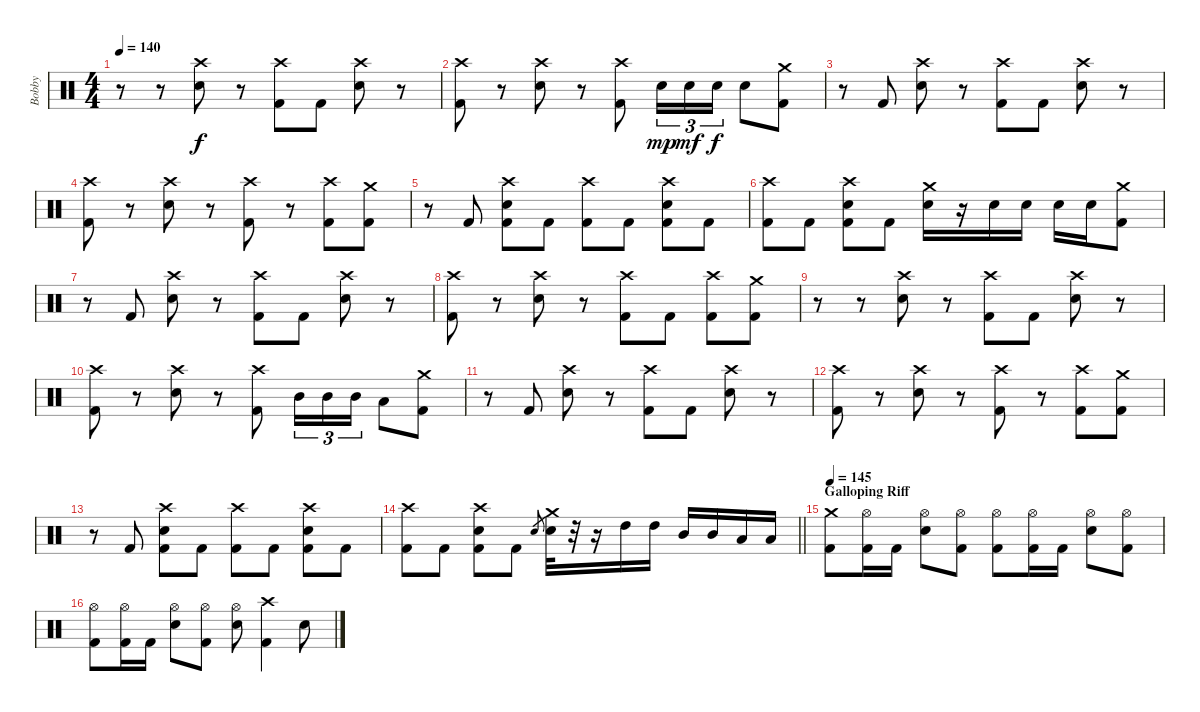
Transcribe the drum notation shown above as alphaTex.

\track ("Bobby" "Bobby") {instrument percussion}
\staff {score}
\articulation defaults
\ts (4 4)
\tempo 140
\clef neutral
\ks c
r.8{dy f} r.8 ("Crash high (hit)" "Electric Snare (hit)").8 r.8 ("Crash high (hit)" "Kick (hit) 2").8 "Kick (hit) 2".8 ("Crash high (hit)" "Electric Snare (hit)").8 r.8 |
("Crash high (hit)" "Kick (hit) 2").8 r.8 ("Crash high (hit)" "Electric Snare (hit)").8 r.8 ("Crash high (hit)" "Kick (hit) 2").8 "Electric Snare (hit)".16{tu (3 2) dy mp} "Electric Snare (hit)".16{tu (3 2) dy mf} "Electric Snare (hit)".16{tu (3 2) dy f} "Electric Snare (hit)".8 ("Crash medium (hit)" "Kick (hit) 2").8 |
r.8 "Kick (hit) 2".8 ("Crash high (hit)" "Electric Snare (hit)").8 r.8 ("Crash high (hit)" "Kick (hit) 2").8 "Kick (hit) 2".8 ("Crash high (hit)" "Electric Snare (hit)").8 r.8 |
("Crash high (hit)" "Kick (hit) 2").8 r.8 ("Crash high (hit)" "Electric Snare (hit)").8 r.8 ("Crash high (hit)" "Kick (hit) 2").8 r.8 ("Crash high (hit)" "Kick (hit) 2").8 ("Crash medium (hit)" "Kick (hit) 2").8 |
r.8 "Kick (hit) 2".8 ("Crash high (hit)" "Electric Snare (hit)" "Kick (hit) 2").8 "Kick (hit) 2".8 ("Crash high (hit)" "Kick (hit) 2").8 "Kick (hit) 2".8 ("Crash high (hit)" "Electric Snare (hit)" "Kick (hit) 2").8 "Kick (hit) 2".8 |
("Crash high (hit)" "Kick (hit) 2").8 "Kick (hit) 2".8 ("Crash high (hit)" "Electric Snare (hit)" "Kick (hit) 2").8 "Kick (hit) 2".8 ("Crash medium (hit)" "Electric Snare (hit)").16 r.16 "Electric Snare (hit)".16 "Electric Snare (hit)".16 "Electric Snare (hit)".16 "Electric Snare (hit)".16 ("Crash medium (hit)" "Kick (hit) 2").8 |
r.8 "Kick (hit) 2".8 ("Crash high (hit)" "Electric Snare (hit)").8 r.8 ("Crash high (hit)" "Kick (hit) 2").8 "Kick (hit) 2".8 ("Crash high (hit)" "Electric Snare (hit)").8 r.8 |
("Crash high (hit)" "Kick (hit) 2").8 r.8 ("Crash high (hit)" "Electric Snare (hit)").8 r.8 ("Crash high (hit)" "Kick (hit) 2").8 "Kick (hit) 2".8 ("Crash high (hit)" "Kick (hit) 2").8 ("Crash medium (hit)" "Kick (hit) 2").8 |
r.8 r.8 ("Crash high (hit)" "Electric Snare (hit)").8 r.8 ("Crash high (hit)" "Kick (hit) 2").8 "Kick (hit) 2".8 ("Crash high (hit)" "Electric Snare (hit)").8 r.8 |
("Crash high (hit)" "Kick (hit) 2").8 r.8 ("Crash high (hit)" "Electric Snare (hit)").8 r.8 ("Crash high (hit)" "Kick (hit) 2").8 "Mid Tom (hit)".16{tu (3 2)} "Mid Tom (hit)".16{tu (3 2)} "Mid Tom (hit)".16{tu (3 2)} "Low Tom (hit)".8 ("Crash medium (hit)" "Kick (hit) 2").8 |
r.8 "Kick (hit) 2".8 ("Crash high (hit)" "Electric Snare (hit)").8 r.8 ("Crash high (hit)" "Kick (hit) 2").8 "Kick (hit) 2".8 ("Crash high (hit)" "Electric Snare (hit)").8 r.8 |
("Crash high (hit)" "Kick (hit) 2").8 r.8 ("Crash high (hit)" "Electric Snare (hit)").8 r.8 ("Crash high (hit)" "Kick (hit) 2").8 r.8 ("Crash high (hit)" "Kick (hit) 2").8 ("Crash medium (hit)" "Kick (hit) 2").8 |
r.8 "Kick (hit) 2".8 ("Crash high (hit)" "Electric Snare (hit)" "Kick (hit) 2").8 "Kick (hit) 2".8 ("Crash high (hit)" "Kick (hit) 2").8 "Kick (hit) 2".8 ("Crash high (hit)" "Electric Snare (hit)" "Kick (hit) 2").8 "Kick (hit) 2".8 |
\barLineRight lightlight
("Crash high (hit)" "Kick (hit) 2").8 "Kick (hit) 2".8 ("Crash high (hit)" "Electric Snare (hit)" "Kick (hit) 2").8 "Kick (hit) 2".8 "Electric Snare (hit)".8{gr} ("Crash medium (hit)" "Electric Snare (hit)").32 r.32 r.16 "High Tom (hit)".16 "High Tom (hit)".16 "Mid Tom (hit)".16 "Mid Tom (hit)".16 "Low Tom (hit)".16 "Low Tom (hit)".16 |
\section ("" "Galloping Riff")
\tempo 140
\tempo 145
("Crash medium (hit)" "Kick (hit) 2").8 ("Hi-Hat (open)" "Kick (hit) 2").16 "Kick (hit) 2".16 ("Hi-Hat (open)" "Electric Snare (hit)").8 ("Hi-Hat (open)" "Kick (hit) 2").8 ("Hi-Hat (open)" "Kick (hit) 2").8 ("Hi-Hat (open)" "Kick (hit) 2").16 "Kick (hit) 2".16 ("Hi-Hat (open)" "Electric Snare (hit)").8 ("Hi-Hat (open)" "Kick (hit) 2").8 |
("Hi-Hat (open)" "Kick (hit) 2").8 ("Hi-Hat (open)" "Kick (hit) 2").16 "Kick (hit) 2".16 ("Hi-Hat (open)" "Electric Snare (hit)").8 ("Hi-Hat (open)" "Kick (hit) 2").8 ("Hi-Hat (open)" "Electric Snare (hit)").8 ("Crash high (hit)" "Kick (hit) 2").4 "Electric Snare (hit)".8
